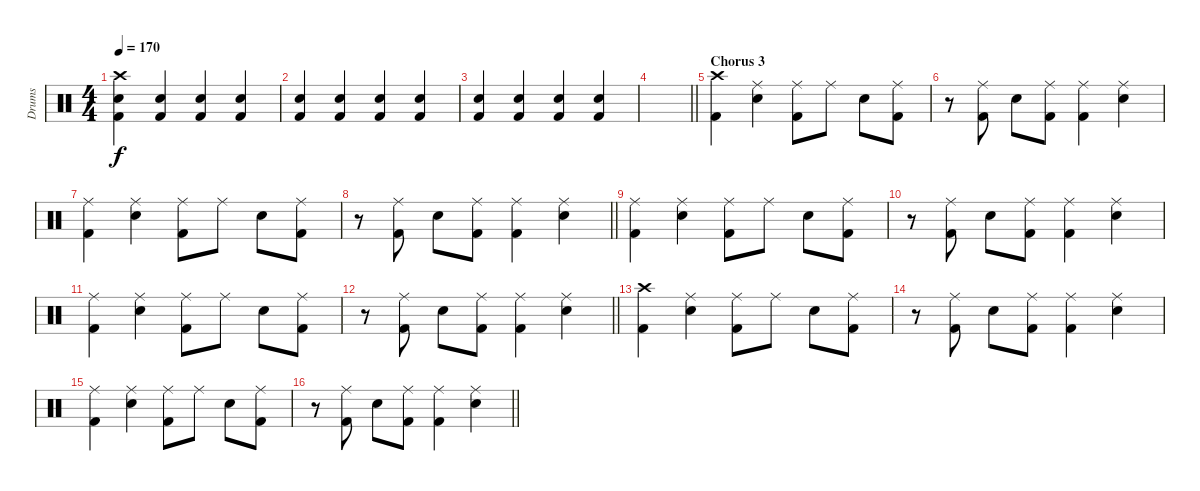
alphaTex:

\track ("Drums" "Drums") {instrument percussion}
\staff {score}
\articulation defaults
\ts (4 4)
\tempo 170
\clef neutral
\ks c
("Crash high (hit)" "Hand Clap (hit)" "Kick (hit) 2").4{dy f} ("Hand Clap (hit)" "Kick (hit) 2").4 ("Hand Clap (hit)" "Kick (hit) 2").4 ("Hand Clap (hit)" "Kick (hit) 2").4 |
("Hand Clap (hit)" "Kick (hit) 2").4 ("Hand Clap (hit)" "Kick (hit) 2").4 ("Hand Clap (hit)" "Kick (hit) 2").4 ("Hand Clap (hit)" "Kick (hit) 2").4 |
("Hand Clap (hit)" "Kick (hit) 2").4 ("Hand Clap (hit)" "Kick (hit) 2").4 ("Hand Clap (hit)" "Kick (hit) 2").4 ("Hand Clap (hit)" "Kick (hit) 2").4 |
\barLineRight lightlight
|
\section ("" "Chorus 3")
("Crash high (hit)" "Kick (hit) 2").4 ("Ride (middle)" "Electric Snare (hit)").4 ("Ride (middle)" "Kick (hit) 2").8 "Ride (middle)".8 "Electric Snare (hit)".8 ("Ride (middle)" "Kick (hit) 2").8 |
r.8 ("Ride (middle)" "Kick (hit) 2").8 "Electric Snare (hit)".8 ("Ride (middle)" "Kick (hit) 2").8 ("Ride (middle)" "Kick (hit) 2").4 ("Ride (middle)" "Electric Snare (hit)").4 |
("Ride (middle)" "Kick (hit) 2").4 ("Ride (middle)" "Electric Snare (hit)").4 ("Ride (middle)" "Kick (hit) 2").8 "Ride (middle)".8 "Electric Snare (hit)".8 ("Ride (middle)" "Kick (hit) 2").8 |
\barLineRight lightlight
r.8 ("Ride (middle)" "Kick (hit) 2").8 "Electric Snare (hit)".8 ("Ride (middle)" "Kick (hit) 2").8 ("Ride (middle)" "Kick (hit) 2").4 ("Ride (middle)" "Electric Snare (hit)").4 |
("Ride (middle)" "Kick (hit) 2").4 ("Ride (middle)" "Electric Snare (hit)").4 ("Ride (middle)" "Kick (hit) 2").8 "Ride (middle)".8 "Electric Snare (hit)".8 ("Ride (middle)" "Kick (hit) 2").8 |
r.8 ("Ride (middle)" "Kick (hit) 2").8 "Electric Snare (hit)".8 ("Ride (middle)" "Kick (hit) 2").8 ("Ride (middle)" "Kick (hit) 2").4 ("Ride (middle)" "Electric Snare (hit)").4 |
("Ride (middle)" "Kick (hit) 2").4 ("Ride (middle)" "Electric Snare (hit)").4 ("Ride (middle)" "Kick (hit) 2").8 "Ride (middle)".8 "Electric Snare (hit)".8 ("Ride (middle)" "Kick (hit) 2").8 |
\barLineRight lightlight
r.8 ("Ride (middle)" "Kick (hit) 2").8 "Electric Snare (hit)".8 ("Ride (middle)" "Kick (hit) 2").8 ("Ride (middle)" "Kick (hit) 2").4 ("Ride (middle)" "Electric Snare (hit)").4 |
("Crash high (hit)" "Kick (hit) 2").4 ("Ride (middle)" "Electric Snare (hit)").4 ("Ride (middle)" "Kick (hit) 2").8 "Ride (middle)".8 "Electric Snare (hit)".8 ("Ride (middle)" "Kick (hit) 2").8 |
r.8 ("Ride (middle)" "Kick (hit) 2").8 "Electric Snare (hit)".8 ("Ride (middle)" "Kick (hit) 2").8 ("Ride (middle)" "Kick (hit) 2").4 ("Ride (middle)" "Electric Snare (hit)").4 |
("Ride (middle)" "Kick (hit) 2").4 ("Ride (middle)" "Electric Snare (hit)").4 ("Ride (middle)" "Kick (hit) 2").8 "Ride (middle)".8 "Electric Snare (hit)".8 ("Ride (middle)" "Kick (hit) 2").8 |
\barLineRight lightlight
r.8 ("Ride (middle)" "Kick (hit) 2").8 "Electric Snare (hit)".8 ("Ride (middle)" "Kick (hit) 2").8 ("Ride (middle)" "Kick (hit) 2").4 ("Ride (middle)" "Electric Snare (hit)").4
